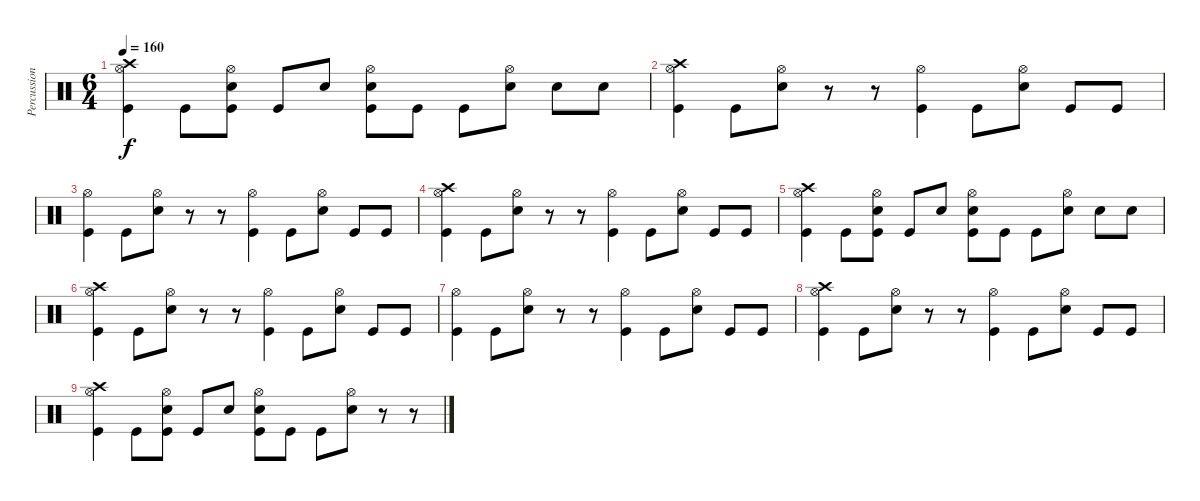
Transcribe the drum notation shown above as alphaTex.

\track ("Percussion" "Percussion") {instrument percussion}
\staff {score}
\articulation defaults
\ts (6 4)
\tempo 160
\clef neutral
\ks c
("Crash high (hit)" "Hi-Hat (open)" "Kick (hit)").4{dy f} "Kick (hit)".8 ("Hi-Hat (open)" "Electric Snare (hit)" "Kick (hit)").8 "Kick (hit)".8 "Electric Snare (hit)".8 ("Hi-Hat (open)" "Electric Snare (hit)" "Kick (hit)").8 "Kick (hit)".8 "Kick (hit)".8 ("Hi-Hat (open)" "Electric Snare (hit)").8 "Electric Snare (hit)".8 "Electric Snare (hit)".8 |
("Crash high (hit)" "Hi-Hat (open)" "Kick (hit)").4 "Kick (hit)".8 ("Hi-Hat (open)" "Electric Snare (hit)").8 r.8 r.8 ("Hi-Hat (open)" "Kick (hit)").4 "Kick (hit)".8 ("Hi-Hat (open)" "Electric Snare (hit)").8 "Kick (hit)".8 "Kick (hit)".8 |
("Hi-Hat (open)" "Kick (hit)").4 "Kick (hit)".8 ("Hi-Hat (open)" "Electric Snare (hit)").8 r.8 r.8 ("Hi-Hat (open)" "Kick (hit)").4 "Kick (hit)".8 ("Hi-Hat (open)" "Electric Snare (hit)").8 "Kick (hit)".8 "Kick (hit)".8 |
("Crash high (hit)" "Hi-Hat (open)" "Kick (hit)").4 "Kick (hit)".8 ("Hi-Hat (open)" "Electric Snare (hit)").8 r.8 r.8 ("Hi-Hat (open)" "Kick (hit)").4 "Kick (hit)".8 ("Hi-Hat (open)" "Electric Snare (hit)").8 "Kick (hit)".8 "Kick (hit)".8 |
("Crash high (hit)" "Hi-Hat (open)" "Kick (hit)").4 "Kick (hit)".8 ("Hi-Hat (open)" "Electric Snare (hit)" "Kick (hit)").8 "Kick (hit)".8 "Electric Snare (hit)".8 ("Hi-Hat (open)" "Electric Snare (hit)" "Kick (hit)").8 "Kick (hit)".8 "Kick (hit)".8 ("Hi-Hat (open)" "Electric Snare (hit)").8 "Electric Snare (hit)".8 "Electric Snare (hit)".8 |
("Crash high (hit)" "Hi-Hat (open)" "Kick (hit)").4 "Kick (hit)".8 ("Hi-Hat (open)" "Electric Snare (hit)").8 r.8 r.8 ("Hi-Hat (open)" "Kick (hit)").4 "Kick (hit)".8 ("Hi-Hat (open)" "Electric Snare (hit)").8 "Kick (hit)".8 "Kick (hit)".8 |
("Hi-Hat (open)" "Kick (hit)").4 "Kick (hit)".8 ("Hi-Hat (open)" "Electric Snare (hit)").8 r.8 r.8 ("Hi-Hat (open)" "Kick (hit)").4 "Kick (hit)".8 ("Hi-Hat (open)" "Electric Snare (hit)").8 "Kick (hit)".8 "Kick (hit)".8 |
("Crash high (hit)" "Hi-Hat (open)" "Kick (hit)").4 "Kick (hit)".8 ("Hi-Hat (open)" "Electric Snare (hit)").8 r.8 r.8 ("Hi-Hat (open)" "Kick (hit)").4 "Kick (hit)".8 ("Hi-Hat (open)" "Electric Snare (hit)").8 "Kick (hit)".8 "Kick (hit)".8 |
("Crash high (hit)" "Hi-Hat (open)" "Kick (hit)").4 "Kick (hit)".8 ("Hi-Hat (open)" "Electric Snare (hit)" "Kick (hit)").8 "Kick (hit)".8 "Electric Snare (hit)".8 ("Hi-Hat (open)" "Electric Snare (hit)" "Kick (hit)").8 "Kick (hit)".8 "Kick (hit)".8 ("Hi-Hat (open)" "Electric Snare (hit)").8 r.8 r.8
